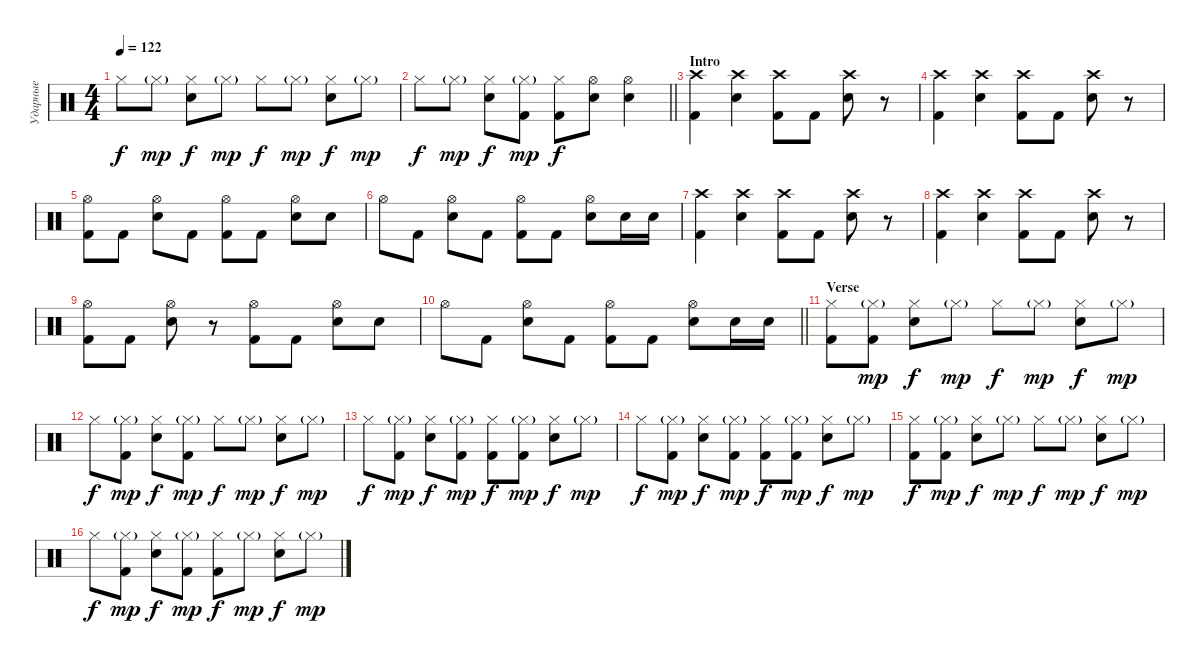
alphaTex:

\track ("Ударные" "Ударные") {instrument percussion}
\staff {score}
\articulation defaults
\ts (4 4)
\tempo 122
\clef neutral
\ks c "Hi-Hat (closed)".8{dy f} "Hi-Hat (closed)"{g}.8{dy mp}
("Hi-Hat (closed)" "Electric Snare (hit)").8{dy f} "Hi-Hat (closed)"{g}.8{dy mp} "Hi-Hat (closed)".8{dy f} "Hi-Hat (closed)"{g}.8{dy mp} ("Hi-Hat (closed)" "Electric Snare (hit)").8{dy f} "Hi-Hat (closed)"{g}.8{dy mp} |
\barLineRight lightlight "Hi-Hat (closed)".8{dy f} "Hi-Hat (closed)"{g}.8{dy mp}
("Hi-Hat (closed)" "Electric Snare (hit)").8{dy f} ("Hi-Hat (closed)"{g} "Kick (hit) 2").8{dy mp} ("Hi-Hat (closed)" "Kick (hit) 2").8{dy f} ("Hi-Hat (open)" "Electric Snare (hit)").8 ("Hi-Hat (open)" "Electric Snare (hit)").4 |
\section ("" "Intro")
("Crash high (hit)" "Kick (hit) 2").4 ("Crash high (hit)" "Electric Snare (hit)").4 ("Crash high (hit)" "Kick (hit) 2").8 "Kick (hit) 2".8 ("Crash high (hit)" "Electric Snare (hit)").8 r.8 |
("Crash high (hit)" "Kick (hit) 2").4 ("Crash high (hit)" "Electric Snare (hit)").4 ("Crash high (hit)" "Kick (hit) 2").8 "Kick (hit) 2".8 ("Crash high (hit)" "Electric Snare (hit)").8 r.8 |
("Hi-Hat (open)" "Kick (hit) 2").8 "Kick (hit) 2".8 ("Hi-Hat (open)" "Electric Snare (hit)").8 "Kick (hit) 2".8 ("Hi-Hat (open)" "Kick (hit) 2").8 "Kick (hit) 2".8 ("Hi-Hat (open)" "Electric Snare (hit)").8 "Electric Snare (hit)".8 |
"Hi-Hat (open)".8 "Kick (hit) 2".8 ("Hi-Hat (open)" "Electric Snare (hit)").8 "Kick (hit) 2".8 ("Hi-Hat (open)" "Kick (hit) 2").8 "Kick (hit) 2".8 ("Hi-Hat (open)" "Electric Snare (hit)").8 "Electric Snare (hit)".16 "Electric Snare (hit)".16 |
("Crash high (hit)" "Kick (hit) 2").4 ("Crash high (hit)" "Electric Snare (hit)").4 ("Crash high (hit)" "Kick (hit) 2").8 "Kick (hit) 2".8 ("Crash high (hit)" "Electric Snare (hit)").8 r.8 |
("Crash high (hit)" "Kick (hit) 2").4 ("Crash high (hit)" "Electric Snare (hit)").4 ("Crash high (hit)" "Kick (hit) 2").8 "Kick (hit) 2".8 ("Crash high (hit)" "Electric Snare (hit)").8 r.8 |
("Hi-Hat (open)" "Kick (hit) 2").8 "Kick (hit) 2".8 ("Hi-Hat (open)" "Electric Snare (hit)").8 r.8 ("Hi-Hat (open)" "Kick (hit) 2").8 "Kick (hit) 2".8 ("Hi-Hat (open)" "Electric Snare (hit)").8 "Electric Snare (hit)".8 |
\barLineRight lightlight "Hi-Hat (open)".8 "Kick (hit) 2".8
("Hi-Hat (open)" "Electric Snare (hit)").8 "Kick (hit) 2".8 ("Hi-Hat (open)" "Kick (hit) 2").8 "Kick (hit) 2".8 ("Hi-Hat (open)" "Electric Snare (hit)").8 "Electric Snare (hit)".16 "Electric Snare (hit)".16 |
\section ("" "Verse")
("Hi-Hat (closed)" "Kick (hit) 2").8{volume 13} ("Hi-Hat (closed)"{g} "Kick (hit) 2").8{dy mp} ("Hi-Hat (closed)" "Electric Snare (hit)").8{dy f} "Hi-Hat (closed)"{g}.8{dy mp} "Hi-Hat (closed)".8{dy f} "Hi-Hat (closed)"{g}.8{dy mp} ("Hi-Hat (closed)" "Electric Snare (hit)").8{dy f} "Hi-Hat (closed)"{g}.8{dy mp} |
"Hi-Hat (closed)".8{dy f} ("Hi-Hat (closed)"{g} "Kick (hit) 2").8{dy mp} ("Hi-Hat (closed)" "Electric Snare (hit)").8{dy f} ("Hi-Hat (closed)"{g} "Kick (hit) 2").8{dy mp} "Hi-Hat (closed)".8{dy f} "Hi-Hat (closed)"{g}.8{dy mp} ("Hi-Hat (closed)" "Electric Snare (hit)").8{dy f} "Hi-Hat (closed)"{g}.8{dy mp} |
"Hi-Hat (closed)".8{dy f} ("Hi-Hat (closed)"{g} "Kick (hit) 2").8{dy mp} ("Hi-Hat (closed)" "Electric Snare (hit)").8{dy f} ("Hi-Hat (closed)"{g} "Kick (hit) 2").8{dy mp} ("Hi-Hat (closed)" "Kick (hit) 2").8{dy f} ("Hi-Hat (closed)"{g} "Kick (hit) 2").8{dy mp} ("Hi-Hat (closed)" "Electric Snare (hit)").8{dy f} "Hi-Hat (closed)"{g}.8{dy mp} |
"Hi-Hat (closed)".8{dy f} ("Hi-Hat (closed)"{g} "Kick (hit) 2").8{dy mp} ("Hi-Hat (closed)" "Electric Snare (hit)").8{dy f} ("Hi-Hat (closed)"{g} "Kick (hit) 2").8{dy mp} ("Hi-Hat (closed)" "Kick (hit) 2").8{dy f} ("Hi-Hat (closed)"{g} "Kick (hit) 2").8{dy mp} ("Hi-Hat (closed)" "Electric Snare (hit)").8{dy f} "Hi-Hat (closed)"{g}.8{dy mp} |
("Hi-Hat (closed)" "Kick (hit) 2").8{dy f} ("Hi-Hat (closed)"{g} "Kick (hit) 2").8{dy mp} ("Hi-Hat (closed)" "Electric Snare (hit)").8{dy f} "Hi-Hat (closed)"{g}.8{dy mp} "Hi-Hat (closed)".8{dy f} "Hi-Hat (closed)"{g}.8{dy mp} ("Hi-Hat (closed)" "Electric Snare (hit)").8{dy f} "Hi-Hat (closed)"{g}.8{dy mp} |
"Hi-Hat (closed)".8{dy f} ("Hi-Hat (closed)"{g} "Kick (hit) 2").8{dy mp} ("Hi-Hat (closed)" "Electric Snare (hit)").8{dy f} ("Hi-Hat (closed)"{g} "Kick (hit) 2").8{dy mp} ("Hi-Hat (closed)" "Kick (hit) 2").8{dy f} "Hi-Hat (closed)"{g}.8{dy mp} ("Hi-Hat (closed)" "Electric Snare (hit)").8{dy f} "Hi-Hat (closed)"{g}.8{dy mp}
